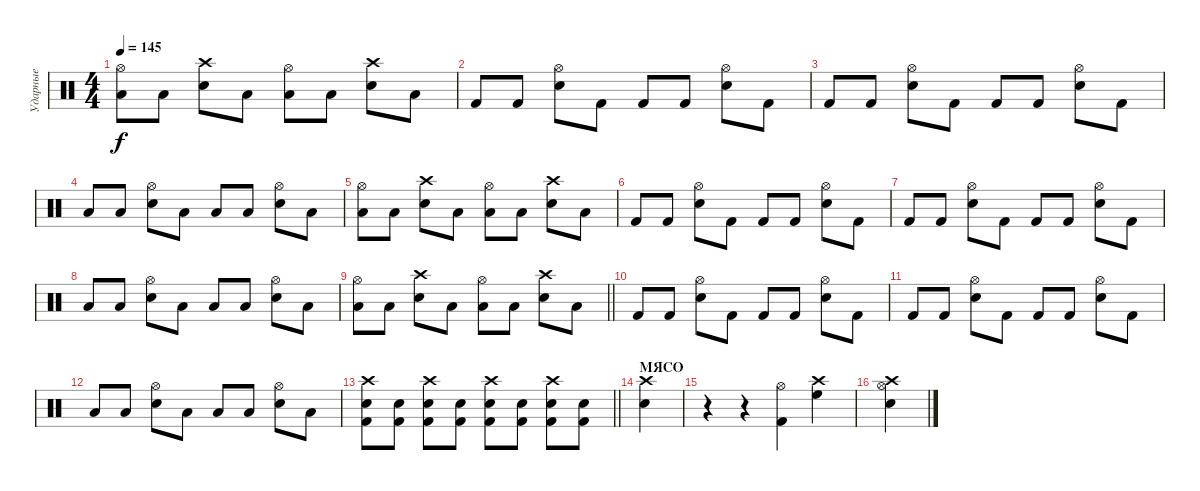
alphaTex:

\track ("Ударные" "Ударные") {instrument percussion}
\staff {score}
\articulation defaults
\ts (4 4)
\tempo 145
\clef neutral
\ks c
("Hi-Hat (open)" "Low Tom (hit)").8{dy f} "Low Tom (hit)".8 ("Crash high (hit)" "Electric Snare (hit)").8 "Low Tom (hit)".8 ("Hi-Hat (open)" "Low Tom (hit)").8 "Low Tom (hit)".8 ("Crash high (hit)" "Electric Snare (hit)").8 "Low Tom (hit)".8 |
"Kick (hit) 2".8 "Kick (hit) 2".8 ("Hi-Hat (open)" "Electric Snare (hit)").8 "Kick (hit) 2".8 "Kick (hit) 2".8 "Kick (hit) 2".8 ("Hi-Hat (open)" "Electric Snare (hit)").8 "Kick (hit) 2".8 |
"Kick (hit) 2".8 "Kick (hit) 2".8 ("Hi-Hat (open)" "Electric Snare (hit)").8 "Kick (hit) 2".8 "Kick (hit) 2".8 "Kick (hit) 2".8 ("Hi-Hat (open)" "Electric Snare (hit)").8 "Kick (hit) 2".8 |
"Low Tom (hit)".8 "Low Tom (hit)".8 ("Hi-Hat (open)" "Electric Snare (hit)").8 "Low Tom (hit)".8 "Low Tom (hit)".8 "Low Tom (hit)".8 ("Hi-Hat (open)" "Electric Snare (hit)").8 "Low Tom (hit)".8 |
("Hi-Hat (open)" "Low Tom (hit)").8 "Low Tom (hit)".8 ("Crash high (hit)" "Electric Snare (hit)").8 "Low Tom (hit)".8 ("Hi-Hat (open)" "Low Tom (hit)").8 "Low Tom (hit)".8 ("Crash high (hit)" "Electric Snare (hit)").8 "Low Tom (hit)".8 |
"Kick (hit) 2".8 "Kick (hit) 2".8 ("Hi-Hat (open)" "Electric Snare (hit)").8 "Kick (hit) 2".8 "Kick (hit) 2".8 "Kick (hit) 2".8 ("Hi-Hat (open)" "Electric Snare (hit)").8 "Kick (hit) 2".8 |
"Kick (hit) 2".8 "Kick (hit) 2".8 ("Hi-Hat (open)" "Electric Snare (hit)").8 "Kick (hit) 2".8 "Kick (hit) 2".8 "Kick (hit) 2".8 ("Hi-Hat (open)" "Electric Snare (hit)").8 "Kick (hit) 2".8 |
"Low Tom (hit)".8 "Low Tom (hit)".8 ("Hi-Hat (open)" "Electric Snare (hit)").8 "Low Tom (hit)".8 "Low Tom (hit)".8 "Low Tom (hit)".8 ("Hi-Hat (open)" "Electric Snare (hit)").8 "Low Tom (hit)".8 |
\barLineRight lightlight
("Hi-Hat (open)" "Low Tom (hit)").8 "Low Tom (hit)".8 ("Crash high (hit)" "Electric Snare (hit)").8 "Low Tom (hit)".8 ("Hi-Hat (open)" "Low Tom (hit)").8 "Low Tom (hit)".8 ("Crash high (hit)" "Electric Snare (hit)").8 "Low Tom (hit)".8 |
"Kick (hit) 2".8 "Kick (hit) 2".8 ("Hi-Hat (open)" "Electric Snare (hit)").8 "Kick (hit) 2".8 "Kick (hit) 2".8 "Kick (hit) 2".8 ("Hi-Hat (open)" "Electric Snare (hit)").8 "Kick (hit) 2".8 |
"Kick (hit) 2".8 "Kick (hit) 2".8 ("Hi-Hat (open)" "Electric Snare (hit)").8 "Kick (hit) 2".8 "Kick (hit) 2".8 "Kick (hit) 2".8 ("Hi-Hat (open)" "Electric Snare (hit)").8 "Kick (hit) 2".8 |
"Low Tom (hit)".8 "Low Tom (hit)".8 ("Hi-Hat (open)" "Electric Snare (hit)").8 "Low Tom (hit)".8 "Low Tom (hit)".8 "Low Tom (hit)".8 ("Hi-Hat (open)" "Electric Snare (hit)").8 "Low Tom (hit)".8 |
\barLineRight lightlight
("Crash high (hit)" "Electric Snare (hit)" "Kick (hit) 2").8 ("Electric Snare (hit)" "Kick (hit) 2").8 ("Crash high (hit)" "Electric Snare (hit)" "Kick (hit) 2").8 ("Electric Snare (hit)" "Kick (hit) 2").8 ("Crash high (hit)" "Electric Snare (hit)" "Kick (hit) 2").8 ("Electric Snare (hit)" "Kick (hit) 2").8 ("Crash high (hit)" "Electric Snare (hit)" "Kick (hit) 2").8 ("Electric Snare (hit)" "Kick (hit) 2").8 |
\section ("" "МЯСО")
("Crash high (hit)" "Electric Snare (hit)").4 |
r.4 r.4 ("Hi-Hat (open)" "Kick (hit) 2").4 ("Crash high (hit)" "High Floor Tom (hit)").4 |
("Hi-Hat (open)" "Crash high (hit)" "Electric Snare (hit)").4
